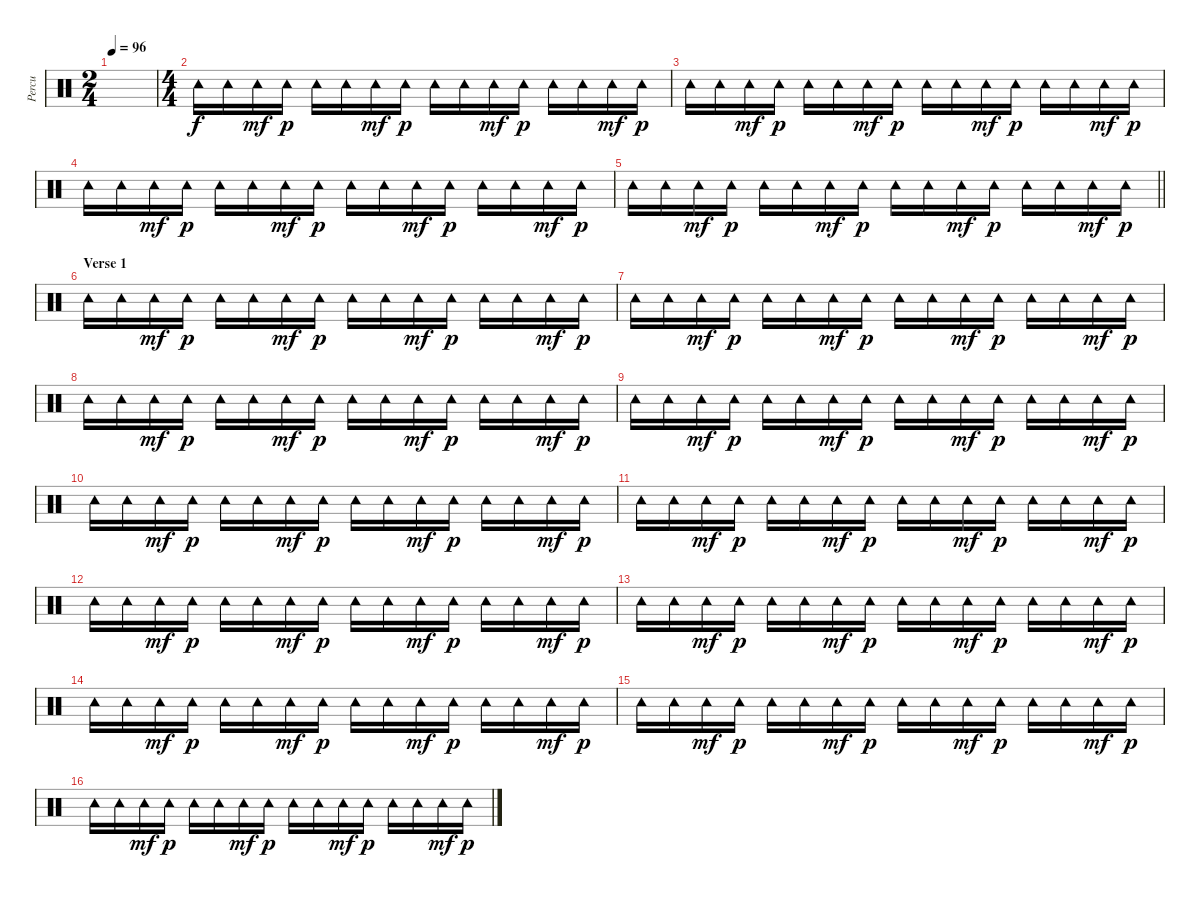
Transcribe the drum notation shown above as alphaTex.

\track ("Percu" "Percu") {instrument percussion}
\staff {score}
\articulation defaults
\ts (2 4)
\tempo 96
\clef neutral
\ks c
|
\ts (4 4)
"Tambourine (hit)".16 "Tambourine (hit)".16 "Tambourine (hit)".16{dy mf} "Tambourine (hit)".16{dy p} "Tambourine (hit)".16 "Tambourine (hit)".16 "Tambourine (hit)".16{dy mf} "Tambourine (hit)".16{dy p} "Tambourine (hit)".16 "Tambourine (hit)".16 "Tambourine (hit)".16{dy mf} "Tambourine (hit)".16{dy p} "Tambourine (hit)".16 "Tambourine (hit)".16 "Tambourine (hit)".16{dy mf} "Tambourine (hit)".16{dy p} |
"Tambourine (hit)".16 "Tambourine (hit)".16 "Tambourine (hit)".16{dy mf} "Tambourine (hit)".16{dy p} "Tambourine (hit)".16 "Tambourine (hit)".16 "Tambourine (hit)".16{dy mf} "Tambourine (hit)".16{dy p} "Tambourine (hit)".16 "Tambourine (hit)".16 "Tambourine (hit)".16{dy mf} "Tambourine (hit)".16{dy p} "Tambourine (hit)".16 "Tambourine (hit)".16 "Tambourine (hit)".16{dy mf} "Tambourine (hit)".16{dy p} |
"Tambourine (hit)".16 "Tambourine (hit)".16 "Tambourine (hit)".16{dy mf} "Tambourine (hit)".16{dy p} "Tambourine (hit)".16 "Tambourine (hit)".16 "Tambourine (hit)".16{dy mf} "Tambourine (hit)".16{dy p} "Tambourine (hit)".16 "Tambourine (hit)".16 "Tambourine (hit)".16{dy mf} "Tambourine (hit)".16{dy p} "Tambourine (hit)".16 "Tambourine (hit)".16 "Tambourine (hit)".16{dy mf} "Tambourine (hit)".16{dy p} |
\barLineRight lightlight "Tambourine (hit)".16 "Tambourine (hit)".16 "Tambourine (hit)".16{dy mf} "Tambourine (hit)".16{dy p} "Tambourine (hit)".16 "Tambourine (hit)".16 "Tambourine (hit)".16{dy mf} "Tambourine (hit)".16{dy p} "Tambourine (hit)".16 "Tambourine (hit)".16 "Tambourine (hit)".16{dy mf} "Tambourine (hit)".16{dy p} "Tambourine (hit)".16 "Tambourine (hit)".16 "Tambourine (hit)".16{dy mf} "Tambourine (hit)".16{dy p}
|
\section ("" "Verse 1")
"Tambourine (hit)".16 "Tambourine (hit)".16 "Tambourine (hit)".16{dy mf} "Tambourine (hit)".16{dy p} "Tambourine (hit)".16 "Tambourine (hit)".16 "Tambourine (hit)".16{dy mf} "Tambourine (hit)".16{dy p} "Tambourine (hit)".16 "Tambourine (hit)".16 "Tambourine (hit)".16{dy mf} "Tambourine (hit)".16{dy p} "Tambourine (hit)".16 "Tambourine (hit)".16 "Tambourine (hit)".16{dy mf} "Tambourine (hit)".16{dy p} |
"Tambourine (hit)".16 "Tambourine (hit)".16 "Tambourine (hit)".16{dy mf} "Tambourine (hit)".16{dy p} "Tambourine (hit)".16 "Tambourine (hit)".16 "Tambourine (hit)".16{dy mf} "Tambourine (hit)".16{dy p} "Tambourine (hit)".16 "Tambourine (hit)".16 "Tambourine (hit)".16{dy mf} "Tambourine (hit)".16{dy p} "Tambourine (hit)".16 "Tambourine (hit)".16 "Tambourine (hit)".16{dy mf} "Tambourine (hit)".16{dy p} |
"Tambourine (hit)".16 "Tambourine (hit)".16 "Tambourine (hit)".16{dy mf} "Tambourine (hit)".16{dy p} "Tambourine (hit)".16 "Tambourine (hit)".16 "Tambourine (hit)".16{dy mf} "Tambourine (hit)".16{dy p} "Tambourine (hit)".16 "Tambourine (hit)".16 "Tambourine (hit)".16{dy mf} "Tambourine (hit)".16{dy p} "Tambourine (hit)".16 "Tambourine (hit)".16 "Tambourine (hit)".16{dy mf} "Tambourine (hit)".16{dy p} |
"Tambourine (hit)".16 "Tambourine (hit)".16 "Tambourine (hit)".16{dy mf} "Tambourine (hit)".16{dy p} "Tambourine (hit)".16 "Tambourine (hit)".16 "Tambourine (hit)".16{dy mf} "Tambourine (hit)".16{dy p} "Tambourine (hit)".16 "Tambourine (hit)".16 "Tambourine (hit)".16{dy mf} "Tambourine (hit)".16{dy p} "Tambourine (hit)".16 "Tambourine (hit)".16 "Tambourine (hit)".16{dy mf} "Tambourine (hit)".16{dy p} |
"Tambourine (hit)".16 "Tambourine (hit)".16 "Tambourine (hit)".16{dy mf} "Tambourine (hit)".16{dy p} "Tambourine (hit)".16 "Tambourine (hit)".16 "Tambourine (hit)".16{dy mf} "Tambourine (hit)".16{dy p} "Tambourine (hit)".16 "Tambourine (hit)".16 "Tambourine (hit)".16{dy mf} "Tambourine (hit)".16{dy p} "Tambourine (hit)".16 "Tambourine (hit)".16 "Tambourine (hit)".16{dy mf} "Tambourine (hit)".16{dy p} |
"Tambourine (hit)".16 "Tambourine (hit)".16 "Tambourine (hit)".16{dy mf} "Tambourine (hit)".16{dy p} "Tambourine (hit)".16 "Tambourine (hit)".16 "Tambourine (hit)".16{dy mf} "Tambourine (hit)".16{dy p} "Tambourine (hit)".16 "Tambourine (hit)".16 "Tambourine (hit)".16{dy mf} "Tambourine (hit)".16{dy p} "Tambourine (hit)".16 "Tambourine (hit)".16 "Tambourine (hit)".16{dy mf} "Tambourine (hit)".16{dy p} |
"Tambourine (hit)".16 "Tambourine (hit)".16 "Tambourine (hit)".16{dy mf} "Tambourine (hit)".16{dy p} "Tambourine (hit)".16 "Tambourine (hit)".16 "Tambourine (hit)".16{dy mf} "Tambourine (hit)".16{dy p} "Tambourine (hit)".16 "Tambourine (hit)".16 "Tambourine (hit)".16{dy mf} "Tambourine (hit)".16{dy p} "Tambourine (hit)".16 "Tambourine (hit)".16 "Tambourine (hit)".16{dy mf} "Tambourine (hit)".16{dy p} |
"Tambourine (hit)".16 "Tambourine (hit)".16 "Tambourine (hit)".16{dy mf} "Tambourine (hit)".16{dy p} "Tambourine (hit)".16 "Tambourine (hit)".16 "Tambourine (hit)".16{dy mf} "Tambourine (hit)".16{dy p} "Tambourine (hit)".16 "Tambourine (hit)".16 "Tambourine (hit)".16{dy mf} "Tambourine (hit)".16{dy p} "Tambourine (hit)".16 "Tambourine (hit)".16 "Tambourine (hit)".16{dy mf} "Tambourine (hit)".16{dy p} |
"Tambourine (hit)".16 "Tambourine (hit)".16 "Tambourine (hit)".16{dy mf} "Tambourine (hit)".16{dy p} "Tambourine (hit)".16 "Tambourine (hit)".16 "Tambourine (hit)".16{dy mf} "Tambourine (hit)".16{dy p} "Tambourine (hit)".16 "Tambourine (hit)".16 "Tambourine (hit)".16{dy mf} "Tambourine (hit)".16{dy p} "Tambourine (hit)".16 "Tambourine (hit)".16 "Tambourine (hit)".16{dy mf} "Tambourine (hit)".16{dy p} |
"Tambourine (hit)".16 "Tambourine (hit)".16 "Tambourine (hit)".16{dy mf} "Tambourine (hit)".16{dy p} "Tambourine (hit)".16 "Tambourine (hit)".16 "Tambourine (hit)".16{dy mf} "Tambourine (hit)".16{dy p} "Tambourine (hit)".16 "Tambourine (hit)".16 "Tambourine (hit)".16{dy mf} "Tambourine (hit)".16{dy p} "Tambourine (hit)".16 "Tambourine (hit)".16 "Tambourine (hit)".16{dy mf} "Tambourine (hit)".16{dy p} |
"Tambourine (hit)".16 "Tambourine (hit)".16 "Tambourine (hit)".16{dy mf} "Tambourine (hit)".16{dy p} "Tambourine (hit)".16 "Tambourine (hit)".16 "Tambourine (hit)".16{dy mf} "Tambourine (hit)".16{dy p} "Tambourine (hit)".16 "Tambourine (hit)".16 "Tambourine (hit)".16{dy mf} "Tambourine (hit)".16{dy p} "Tambourine (hit)".16 "Tambourine (hit)".16 "Tambourine (hit)".16{dy mf} "Tambourine (hit)".16{dy p}
